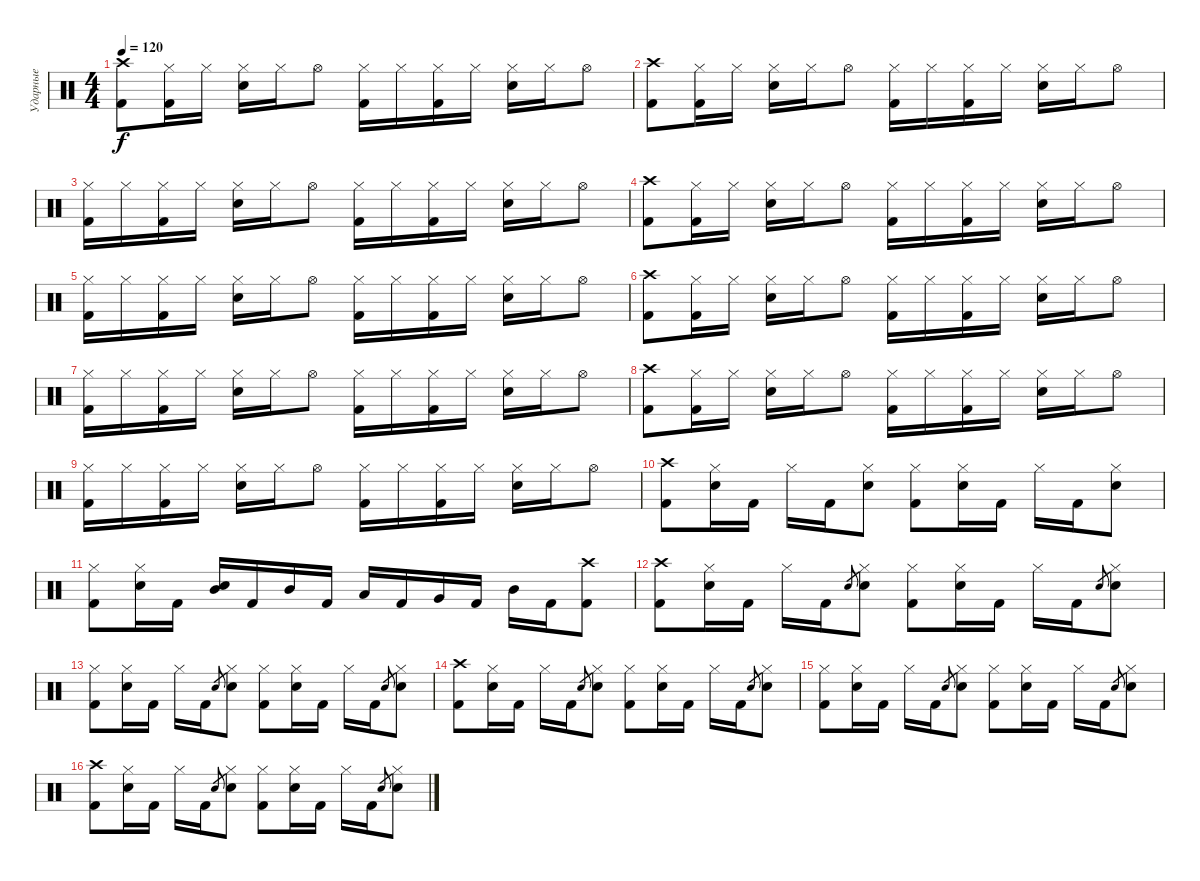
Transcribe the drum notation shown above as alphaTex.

\track ("Ударные" "Ударные") {instrument percussion}
\staff {score}
\articulation defaults
\ts (4 4)
\tempo 120
\clef neutral
\ks c
("Kick (hit) 2" "Crash high (hit)").8{dy f} ("Kick (hit) 2" "Hi-Hat (closed)").16 "Hi-Hat (closed)".16 ("Electric Snare (hit)" "Hi-Hat (closed)").16 "Hi-Hat (closed)".16 "Hi-Hat (open)".8 ("Kick (hit) 2" "Hi-Hat (closed)").16 "Hi-Hat (closed)".16 ("Kick (hit) 2" "Hi-Hat (closed)").16 "Hi-Hat (closed)".16 ("Electric Snare (hit)" "Hi-Hat (closed)").16 "Hi-Hat (closed)".16 "Hi-Hat (open)".8 |
("Kick (hit) 2" "Crash high (hit)").8 ("Kick (hit) 2" "Hi-Hat (closed)").16 "Hi-Hat (closed)".16 ("Electric Snare (hit)" "Hi-Hat (closed)").16 "Hi-Hat (closed)".16 "Hi-Hat (open)".8 ("Kick (hit) 2" "Hi-Hat (closed)").16 "Hi-Hat (closed)".16 ("Kick (hit) 2" "Hi-Hat (closed)").16 "Hi-Hat (closed)".16 ("Electric Snare (hit)" "Hi-Hat (closed)").16 "Hi-Hat (closed)".16 "Hi-Hat (open)".8 |
("Kick (hit) 2" "Hi-Hat (closed)").16 "Hi-Hat (closed)".16 ("Kick (hit) 2" "Hi-Hat (closed)").16 "Hi-Hat (closed)".16 ("Electric Snare (hit)" "Hi-Hat (closed)").16 "Hi-Hat (closed)".16 "Hi-Hat (open)".8 ("Kick (hit) 2" "Hi-Hat (closed)").16 "Hi-Hat (closed)".16 ("Kick (hit) 2" "Hi-Hat (closed)").16 "Hi-Hat (closed)".16 ("Electric Snare (hit)" "Hi-Hat (closed)").16 "Hi-Hat (closed)".16 "Hi-Hat (open)".8 |
("Kick (hit) 2" "Crash high (hit)").8 ("Kick (hit) 2" "Hi-Hat (closed)").16 "Hi-Hat (closed)".16 ("Electric Snare (hit)" "Hi-Hat (closed)").16 "Hi-Hat (closed)".16 "Hi-Hat (open)".8 ("Kick (hit) 2" "Hi-Hat (closed)").16 "Hi-Hat (closed)".16 ("Kick (hit) 2" "Hi-Hat (closed)").16 "Hi-Hat (closed)".16 ("Electric Snare (hit)" "Hi-Hat (closed)").16 "Hi-Hat (closed)".16 "Hi-Hat (open)".8 |
("Kick (hit) 2" "Hi-Hat (closed)").16 "Hi-Hat (closed)".16 ("Kick (hit) 2" "Hi-Hat (closed)").16 "Hi-Hat (closed)".16 ("Electric Snare (hit)" "Hi-Hat (closed)").16 "Hi-Hat (closed)".16 "Hi-Hat (open)".8 ("Kick (hit) 2" "Hi-Hat (closed)").16 "Hi-Hat (closed)".16 ("Kick (hit) 2" "Hi-Hat (closed)").16 "Hi-Hat (closed)".16 ("Electric Snare (hit)" "Hi-Hat (closed)").16 "Hi-Hat (closed)".16 "Hi-Hat (open)".8 |
("Kick (hit) 2" "Crash high (hit)").8 ("Kick (hit) 2" "Hi-Hat (closed)").16 "Hi-Hat (closed)".16 ("Electric Snare (hit)" "Hi-Hat (closed)").16 "Hi-Hat (closed)".16 "Hi-Hat (open)".8 ("Kick (hit) 2" "Hi-Hat (closed)").16 "Hi-Hat (closed)".16 ("Kick (hit) 2" "Hi-Hat (closed)").16 "Hi-Hat (closed)".16 ("Electric Snare (hit)" "Hi-Hat (closed)").16 "Hi-Hat (closed)".16 "Hi-Hat (open)".8 |
("Kick (hit) 2" "Hi-Hat (closed)").16 "Hi-Hat (closed)".16 ("Kick (hit) 2" "Hi-Hat (closed)").16 "Hi-Hat (closed)".16 ("Electric Snare (hit)" "Hi-Hat (closed)").16 "Hi-Hat (closed)".16 "Hi-Hat (open)".8 ("Kick (hit) 2" "Hi-Hat (closed)").16 "Hi-Hat (closed)".16 ("Kick (hit) 2" "Hi-Hat (closed)").16 "Hi-Hat (closed)".16 ("Electric Snare (hit)" "Hi-Hat (closed)").16 "Hi-Hat (closed)".16 "Hi-Hat (open)".8 |
("Kick (hit) 2" "Crash high (hit)").8 ("Kick (hit) 2" "Hi-Hat (closed)").16 "Hi-Hat (closed)".16 ("Electric Snare (hit)" "Hi-Hat (closed)").16 "Hi-Hat (closed)".16 "Hi-Hat (open)".8 ("Kick (hit) 2" "Hi-Hat (closed)").16 "Hi-Hat (closed)".16 ("Kick (hit) 2" "Hi-Hat (closed)").16 "Hi-Hat (closed)".16 ("Electric Snare (hit)" "Hi-Hat (closed)").16 "Hi-Hat (closed)".16 "Hi-Hat (open)".8 |
("Kick (hit) 2" "Hi-Hat (closed)").16 "Hi-Hat (closed)".16 ("Kick (hit) 2" "Hi-Hat (closed)").16 "Hi-Hat (closed)".16 ("Electric Snare (hit)" "Hi-Hat (closed)").16 "Hi-Hat (closed)".16 "Hi-Hat (open)".8 ("Kick (hit) 2" "Hi-Hat (closed)").16 "Hi-Hat (closed)".16 ("Kick (hit) 2" "Hi-Hat (closed)").16 "Hi-Hat (closed)".16 ("Electric Snare (hit)" "Hi-Hat (closed)").16 "Hi-Hat (closed)".16 "Hi-Hat (open)".8 |
("Kick (hit) 2" "Crash high (hit)").8 ("Electric Snare (hit)" "Hi-Hat (closed)").16 "Kick (hit) 2".16 "Hi-Hat (closed)".16 "Kick (hit) 2".16 ("Electric Snare (hit)" "Hi-Hat (closed)").8 ("Kick (hit) 2" "Hi-Hat (closed)").8 ("Electric Snare (hit)" "Hi-Hat (closed)").16 "Kick (hit) 2".16 "Hi-Hat (closed)".16 "Kick (hit) 2".16 ("Electric Snare (hit)" "Hi-Hat (closed)").8 |
("Kick (hit) 2" "Hi-Hat (closed)").8 ("Electric Snare (hit)" "Hi-Hat (closed)").16 "Kick (hit) 2".16 ("Electric Snare (hit)" "Mid Tom (hit)").16 "Kick (hit) 2".16 "Mid Tom (hit)".16 "Kick (hit) 2".16 "Low Tom (hit)".16 "Kick (hit) 2".16 "Very Low Tom (hit)".16 "Kick (hit) 2".16 "Mid Tom (hit)".16 "Kick (hit) 2".16 ("Kick (hit) 2" "Crash high (hit)").8 |
("Kick (hit) 2" "Crash high (hit)").8 ("Electric Snare (hit)" "Hi-Hat (closed)").16 "Kick (hit) 2".16 "Hi-Hat (closed)".16 "Kick (hit) 2".16 "Electric Snare (hit)".8{gr} ("Electric Snare (hit)" "Hi-Hat (closed)").8 ("Kick (hit) 2" "Hi-Hat (closed)").8 ("Electric Snare (hit)" "Hi-Hat (closed)").16 "Kick (hit) 2".16 "Hi-Hat (closed)".16 "Kick (hit) 2".16 "Electric Snare (hit)".8{gr} ("Electric Snare (hit)" "Hi-Hat (closed)").8 |
("Kick (hit) 2" "Hi-Hat (closed)").8 ("Electric Snare (hit)" "Hi-Hat (closed)").16 "Kick (hit) 2".16 "Hi-Hat (closed)".16 "Kick (hit) 2".16 "Electric Snare (hit)".8{gr} ("Electric Snare (hit)" "Hi-Hat (closed)").8 ("Kick (hit) 2" "Hi-Hat (closed)").8 ("Electric Snare (hit)" "Hi-Hat (closed)").16 "Kick (hit) 2".16 "Hi-Hat (closed)".16 "Kick (hit) 2".16 "Electric Snare (hit)".8{gr} ("Electric Snare (hit)" "Hi-Hat (closed)").8 |
("Kick (hit) 2" "Crash high (hit)").8 ("Electric Snare (hit)" "Hi-Hat (closed)").16 "Kick (hit) 2".16 "Hi-Hat (closed)".16 "Kick (hit) 2".16 "Electric Snare (hit)".8{gr} ("Electric Snare (hit)" "Hi-Hat (closed)").8 ("Kick (hit) 2" "Hi-Hat (closed)").8 ("Electric Snare (hit)" "Hi-Hat (closed)").16 "Kick (hit) 2".16 "Hi-Hat (closed)".16 "Kick (hit) 2".16 "Electric Snare (hit)".8{gr} ("Electric Snare (hit)" "Hi-Hat (closed)").8 |
("Kick (hit) 2" "Hi-Hat (closed)").8 ("Electric Snare (hit)" "Hi-Hat (closed)").16 "Kick (hit) 2".16 "Hi-Hat (closed)".16 "Kick (hit) 2".16 "Electric Snare (hit)".8{gr} ("Electric Snare (hit)" "Hi-Hat (closed)").8 ("Kick (hit) 2" "Hi-Hat (closed)").8 ("Electric Snare (hit)" "Hi-Hat (closed)").16 "Kick (hit) 2".16 "Hi-Hat (closed)".16 "Kick (hit) 2".16 "Electric Snare (hit)".8{gr} ("Electric Snare (hit)" "Hi-Hat (closed)").8 |
("Kick (hit) 2" "Crash high (hit)").8 ("Electric Snare (hit)" "Hi-Hat (closed)").16 "Kick (hit) 2".16 "Hi-Hat (closed)".16 "Kick (hit) 2".16 "Electric Snare (hit)".8{gr} ("Electric Snare (hit)" "Hi-Hat (closed)").8 ("Kick (hit) 2" "Hi-Hat (closed)").8 ("Electric Snare (hit)" "Hi-Hat (closed)").16 "Kick (hit) 2".16 "Hi-Hat (closed)".16 "Kick (hit) 2".16 "Electric Snare (hit)".8{gr} ("Electric Snare (hit)" "Hi-Hat (closed)").8
